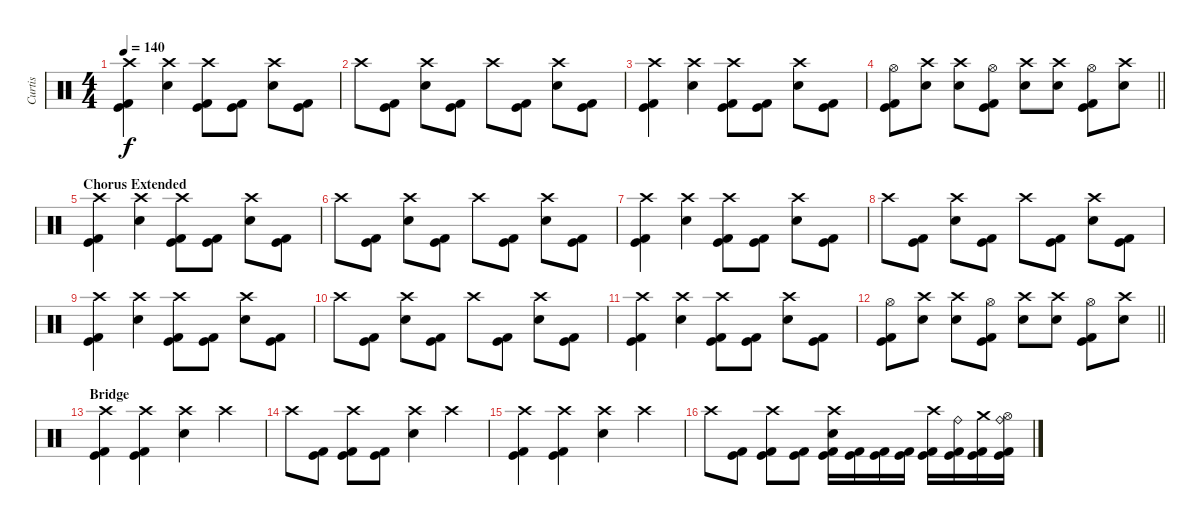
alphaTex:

\track ("Curtis" "Curtis") {instrument percussion}
\staff {score}
\articulation defaults
\ts (4 4)
\tempo 140
\clef neutral
\ks c
("Crash high (hit)" "Kick (hit) 2" "Kick (hit)").4{dy f} ("Crash high (hit)" "Electric Snare (hit)").4 ("Crash high (hit)" "Kick (hit) 2" "Kick (hit)").8 ("Kick (hit) 2" "Kick (hit)").8 ("Crash high (hit)" "Electric Snare (hit)").8 ("Kick (hit) 2" "Kick (hit)").8 |
"Crash high (hit)".8 ("Kick (hit) 2" "Kick (hit)").8 ("Crash high (hit)" "Electric Snare (hit)").8 ("Kick (hit) 2" "Kick (hit)").8 "Crash high (hit)".8 ("Kick (hit) 2" "Kick (hit)").8 ("Crash high (hit)" "Electric Snare (hit)").8 ("Kick (hit) 2" "Kick (hit)").8 |
("Crash high (hit)" "Kick (hit) 2" "Kick (hit)").4 ("Crash high (hit)" "Electric Snare (hit)").4 ("Crash high (hit)" "Kick (hit) 2" "Kick (hit)").8 ("Kick (hit) 2" "Kick (hit)").8 ("Crash high (hit)" "Electric Snare (hit)").8 ("Kick (hit) 2" "Kick (hit)").8 |
\barLineRight lightlight
("Hi-Hat (open)" "Kick (hit) 2" "Kick (hit)").8 ("Crash high (hit)" "Electric Snare (hit)").8 ("Crash high (hit)" "Electric Snare (hit)").8 ("Hi-Hat (open)" "Kick (hit) 2" "Kick (hit)").8 ("Crash high (hit)" "Electric Snare (hit)").8 ("Crash high (hit)" "Electric Snare (hit)").8 ("Hi-Hat (open)" "Kick (hit) 2" "Kick (hit)").8 ("Crash high (hit)" "Electric Snare (hit)").8 |
\section ("" "Chorus Extended")
("Crash high (hit)" "Kick (hit) 2" "Kick (hit)").4 ("Crash high (hit)" "Electric Snare (hit)").4 ("Crash high (hit)" "Kick (hit) 2" "Kick (hit)").8 ("Kick (hit) 2" "Kick (hit)").8 ("Crash high (hit)" "Electric Snare (hit)").8 ("Kick (hit) 2" "Kick (hit)").8 |
"Crash high (hit)".8 ("Kick (hit) 2" "Kick (hit)").8 ("Crash high (hit)" "Electric Snare (hit)").8 ("Kick (hit) 2" "Kick (hit)").8 "Crash high (hit)".8 ("Kick (hit) 2" "Kick (hit)").8 ("Crash high (hit)" "Electric Snare (hit)").8 ("Kick (hit) 2" "Kick (hit)").8 |
("Crash high (hit)" "Kick (hit) 2" "Kick (hit)").4 ("Crash high (hit)" "Electric Snare (hit)").4 ("Crash high (hit)" "Kick (hit) 2" "Kick (hit)").8 ("Kick (hit) 2" "Kick (hit)").8 ("Crash high (hit)" "Electric Snare (hit)").8 ("Kick (hit) 2" "Kick (hit)").8 |
"Crash high (hit)".8 ("Kick (hit) 2" "Kick (hit)").8 ("Crash high (hit)" "Electric Snare (hit)").8 ("Kick (hit) 2" "Kick (hit)").8 "Crash high (hit)".8 ("Kick (hit) 2" "Kick (hit)").8 ("Crash high (hit)" "Electric Snare (hit)").8 ("Kick (hit) 2" "Kick (hit)").8 |
("Crash high (hit)" "Kick (hit) 2" "Kick (hit)").4 ("Crash high (hit)" "Electric Snare (hit)").4 ("Crash high (hit)" "Kick (hit) 2" "Kick (hit)").8 ("Kick (hit) 2" "Kick (hit)").8 ("Crash high (hit)" "Electric Snare (hit)").8 ("Kick (hit) 2" "Kick (hit)").8 |
"Crash high (hit)".8 ("Kick (hit) 2" "Kick (hit)").8 ("Crash high (hit)" "Electric Snare (hit)").8 ("Kick (hit) 2" "Kick (hit)").8 "Crash high (hit)".8 ("Kick (hit) 2" "Kick (hit)").8 ("Crash high (hit)" "Electric Snare (hit)").8 ("Kick (hit) 2" "Kick (hit)").8 |
("Crash high (hit)" "Kick (hit) 2" "Kick (hit)").4 ("Crash high (hit)" "Electric Snare (hit)").4 ("Crash high (hit)" "Kick (hit) 2" "Kick (hit)").8 ("Kick (hit) 2" "Kick (hit)").8 ("Crash high (hit)" "Electric Snare (hit)").8 ("Kick (hit) 2" "Kick (hit)").8 |
\barLineRight lightlight
("Hi-Hat (open)" "Kick (hit) 2" "Kick (hit)").8 ("Crash high (hit)" "Electric Snare (hit)").8 ("Crash high (hit)" "Electric Snare (hit)").8 ("Hi-Hat (open)" "Kick (hit) 2" "Kick (hit)").8 ("Crash high (hit)" "Electric Snare (hit)").8 ("Crash high (hit)" "Electric Snare (hit)").8 ("Hi-Hat (open)" "Kick (hit) 2" "Kick (hit)").8 ("Crash high (hit)" "Electric Snare (hit)").8 |
\section ("" "Bridge")
("Crash high (hit)" "Kick (hit) 2" "Kick (hit)").4 ("Crash high (hit)" "Kick (hit) 2" "Kick (hit)").4 ("Crash high (hit)" "Electric Snare (hit)").4 "Crash high (hit)".4 |
"Crash high (hit)".8 ("Kick (hit) 2" "Kick (hit)").8 ("Crash high (hit)" "Kick (hit) 2" "Kick (hit)").8 ("Kick (hit) 2" "Kick (hit)").8 ("Crash high (hit)" "Electric Snare (hit)").4 "Crash high (hit)".4 |
("Crash high (hit)" "Kick (hit) 2" "Kick (hit)").4 ("Crash high (hit)" "Kick (hit) 2" "Kick (hit)").4 ("Crash high (hit)" "Electric Snare (hit)").4 "Crash high (hit)".4 |
"Crash high (hit)".8 ("Kick (hit) 2" "Kick (hit)").8 ("Crash high (hit)" "Kick (hit) 2" "Kick (hit)").8 ("Kick (hit) 2" "Kick (hit)").8 ("Electric Snare (hit)" "Crash high (hit)" "Kick (hit)" "Kick (hit) 2").16 ("Kick (hit)" "Kick (hit) 2").16 ("Kick (hit)" "Kick (hit) 2").16 ("Kick (hit)" "Kick (hit) 2").16 ("Crash high (hit)" "Kick (hit)" "Kick (hit) 2").16 ("Ride (bell)" "Kick (hit)" "Kick (hit) 2").16 ("Crash medium (hit)" "Kick (hit)" "Kick (hit) 2").16 ("Ride (bell)" "Hi-Hat (open)" "Kick (hit)" "Kick (hit) 2").16
